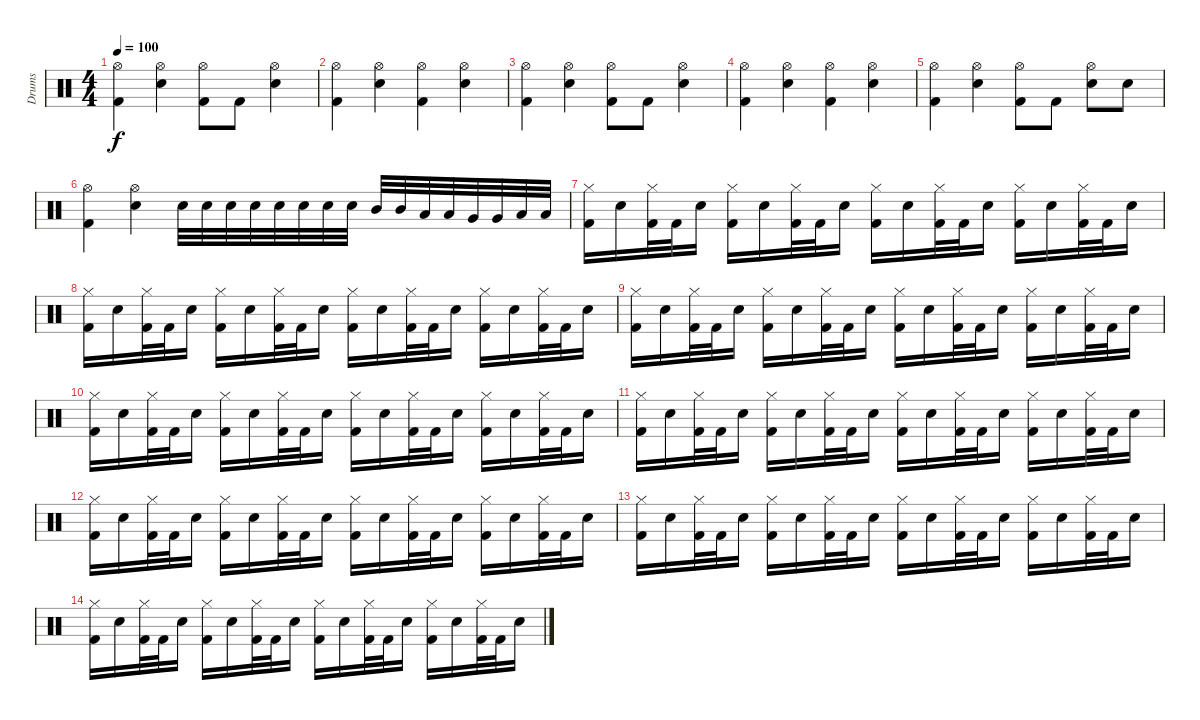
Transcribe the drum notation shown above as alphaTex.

\track ("Drums" "Drums") {instrument percussion}
\staff {score}
\articulation defaults
\ts (4 4)
\tempo 100
\clef neutral
\ks c
("Hi-Hat (open)" "Kick (hit) 2").4{dy f} ("Hi-Hat (open)" "Snare (hit) 2").4 ("Hi-Hat (open)" "Kick (hit) 2").8 "Kick (hit) 2".8 ("Hi-Hat (open)" "Snare (hit) 2").4 |
("Hi-Hat (open)" "Kick (hit) 2").4 ("Hi-Hat (open)" "Snare (hit) 2").4 ("Hi-Hat (open)" "Kick (hit) 2").4 ("Hi-Hat (open)" "Snare (hit) 2").4 |
("Hi-Hat (open)" "Kick (hit) 2").4 ("Hi-Hat (open)" "Snare (hit) 2").4 ("Hi-Hat (open)" "Kick (hit) 2").8 "Kick (hit) 2".8 ("Hi-Hat (open)" "Snare (hit) 2").4 |
("Hi-Hat (open)" "Kick (hit) 2").4 ("Hi-Hat (open)" "Snare (hit) 2").4 ("Hi-Hat (open)" "Kick (hit) 2").4 ("Hi-Hat (open)" "Snare (hit) 2").4 |
("Hi-Hat (open)" "Kick (hit) 2").4 ("Hi-Hat (open)" "Snare (hit) 2").4 ("Hi-Hat (open)" "Kick (hit) 2").8 "Kick (hit) 2".8 ("Hi-Hat (open)" "Snare (hit) 2").8 "Snare (hit) 2".8 |
("Hi-Hat (open)" "Kick (hit) 2").4 ("Hi-Hat (open)" "Snare (hit) 2").4 "Snare (hit) 2".32 "Snare (hit) 2".32 "Snare (hit) 2".32 "Snare (hit) 2".32 "Snare (hit) 2".32 "Snare (hit) 2".32 "Snare (hit) 2".32 "Snare (hit) 2".32 "Mid Tom (hit)".32 "Mid Tom (hit)".32 "Low Tom (hit)".32 "Low Tom (hit)".32 "Very Low Tom (hit)".32 "Very Low Tom (hit)".32 "Low Floor Tom (hit)".32 "Low Floor Tom (hit)".32 |
("Hi-Hat (closed)" "Kick (hit) 2").16 "Snare (hit) 2".16 ("Hi-Hat (closed)" "Kick (hit) 2").32 "Kick (hit) 2".32 "Snare (hit) 2".16 ("Hi-Hat (closed)" "Kick (hit) 2").16 "Snare (hit) 2".16 ("Hi-Hat (closed)" "Kick (hit) 2").32 "Kick (hit) 2".32 "Snare (hit) 2".16 ("Hi-Hat (closed)" "Kick (hit) 2").16 "Snare (hit) 2".16 ("Hi-Hat (closed)" "Kick (hit) 2").32 "Kick (hit) 2".32 "Snare (hit) 2".16 ("Hi-Hat (closed)" "Kick (hit) 2").16 "Snare (hit) 2".16 ("Hi-Hat (closed)" "Kick (hit) 2").32 "Kick (hit) 2".32 "Snare (hit) 2".16 |
("Hi-Hat (closed)" "Kick (hit) 2").16 "Snare (hit) 2".16 ("Hi-Hat (closed)" "Kick (hit) 2").32 "Kick (hit) 2".32 "Snare (hit) 2".16 ("Hi-Hat (closed)" "Kick (hit) 2").16 "Snare (hit) 2".16 ("Hi-Hat (closed)" "Kick (hit) 2").32 "Kick (hit) 2".32 "Snare (hit) 2".16 ("Hi-Hat (closed)" "Kick (hit) 2").16 "Snare (hit) 2".16 ("Hi-Hat (closed)" "Kick (hit) 2").32 "Kick (hit) 2".32 "Snare (hit) 2".16 ("Hi-Hat (closed)" "Kick (hit) 2").16 "Snare (hit) 2".16 ("Hi-Hat (closed)" "Kick (hit) 2").32 "Kick (hit) 2".32 "Snare (hit) 2".16 |
("Hi-Hat (closed)" "Kick (hit) 2").16 "Snare (hit) 2".16 ("Hi-Hat (closed)" "Kick (hit) 2").32 "Kick (hit) 2".32 "Snare (hit) 2".16 ("Hi-Hat (closed)" "Kick (hit) 2").16 "Snare (hit) 2".16 ("Hi-Hat (closed)" "Kick (hit) 2").32 "Kick (hit) 2".32 "Snare (hit) 2".16 ("Hi-Hat (closed)" "Kick (hit) 2").16 "Snare (hit) 2".16 ("Hi-Hat (closed)" "Kick (hit) 2").32 "Kick (hit) 2".32 "Snare (hit) 2".16 ("Hi-Hat (closed)" "Kick (hit) 2").16 "Snare (hit) 2".16 ("Hi-Hat (closed)" "Kick (hit) 2").32 "Kick (hit) 2".32 "Snare (hit) 2".16 |
("Hi-Hat (closed)" "Kick (hit) 2").16 "Snare (hit) 2".16 ("Hi-Hat (closed)" "Kick (hit) 2").32 "Kick (hit) 2".32 "Snare (hit) 2".16 ("Hi-Hat (closed)" "Kick (hit) 2").16 "Snare (hit) 2".16 ("Hi-Hat (closed)" "Kick (hit) 2").32 "Kick (hit) 2".32 "Snare (hit) 2".16 ("Hi-Hat (closed)" "Kick (hit) 2").16 "Snare (hit) 2".16 ("Hi-Hat (closed)" "Kick (hit) 2").32 "Kick (hit) 2".32 "Snare (hit) 2".16 ("Hi-Hat (closed)" "Kick (hit) 2").16 "Snare (hit) 2".16 ("Hi-Hat (closed)" "Kick (hit) 2").32 "Kick (hit) 2".32 "Snare (hit) 2".16 |
("Hi-Hat (closed)" "Kick (hit) 2").16 "Snare (hit) 2".16 ("Hi-Hat (closed)" "Kick (hit) 2").32 "Kick (hit) 2".32 "Snare (hit) 2".16 ("Hi-Hat (closed)" "Kick (hit) 2").16 "Snare (hit) 2".16 ("Hi-Hat (closed)" "Kick (hit) 2").32 "Kick (hit) 2".32 "Snare (hit) 2".16 ("Hi-Hat (closed)" "Kick (hit) 2").16 "Snare (hit) 2".16 ("Hi-Hat (closed)" "Kick (hit) 2").32 "Kick (hit) 2".32 "Snare (hit) 2".16 ("Hi-Hat (closed)" "Kick (hit) 2").16 "Snare (hit) 2".16 ("Hi-Hat (closed)" "Kick (hit) 2").32 "Kick (hit) 2".32 "Snare (hit) 2".16 |
("Hi-Hat (closed)" "Kick (hit) 2").16 "Snare (hit) 2".16 ("Hi-Hat (closed)" "Kick (hit) 2").32 "Kick (hit) 2".32 "Snare (hit) 2".16 ("Hi-Hat (closed)" "Kick (hit) 2").16 "Snare (hit) 2".16 ("Hi-Hat (closed)" "Kick (hit) 2").32 "Kick (hit) 2".32 "Snare (hit) 2".16 ("Hi-Hat (closed)" "Kick (hit) 2").16 "Snare (hit) 2".16 ("Hi-Hat (closed)" "Kick (hit) 2").32 "Kick (hit) 2".32 "Snare (hit) 2".16 ("Hi-Hat (closed)" "Kick (hit) 2").16 "Snare (hit) 2".16 ("Hi-Hat (closed)" "Kick (hit) 2").32 "Kick (hit) 2".32 "Snare (hit) 2".16 |
("Hi-Hat (closed)" "Kick (hit) 2").16 "Snare (hit) 2".16 ("Hi-Hat (closed)" "Kick (hit) 2").32 "Kick (hit) 2".32 "Snare (hit) 2".16 ("Hi-Hat (closed)" "Kick (hit) 2").16 "Snare (hit) 2".16 ("Hi-Hat (closed)" "Kick (hit) 2").32 "Kick (hit) 2".32 "Snare (hit) 2".16 ("Hi-Hat (closed)" "Kick (hit) 2").16 "Snare (hit) 2".16 ("Hi-Hat (closed)" "Kick (hit) 2").32 "Kick (hit) 2".32 "Snare (hit) 2".16 ("Hi-Hat (closed)" "Kick (hit) 2").16 "Snare (hit) 2".16 ("Hi-Hat (closed)" "Kick (hit) 2").32 "Kick (hit) 2".32 "Snare (hit) 2".16 |
("Hi-Hat (closed)" "Kick (hit) 2").16 "Snare (hit) 2".16 ("Hi-Hat (closed)" "Kick (hit) 2").32 "Kick (hit) 2".32 "Snare (hit) 2".16 ("Hi-Hat (closed)" "Kick (hit) 2").16 "Snare (hit) 2".16 ("Hi-Hat (closed)" "Kick (hit) 2").32 "Kick (hit) 2".32 "Snare (hit) 2".16 ("Hi-Hat (closed)" "Kick (hit) 2").16 "Snare (hit) 2".16 ("Hi-Hat (closed)" "Kick (hit) 2").32 "Kick (hit) 2".32 "Snare (hit) 2".16 ("Hi-Hat (closed)" "Kick (hit) 2").16 "Snare (hit) 2".16 ("Hi-Hat (closed)" "Kick (hit) 2").32 "Kick (hit) 2".32 "Snare (hit) 2".16
